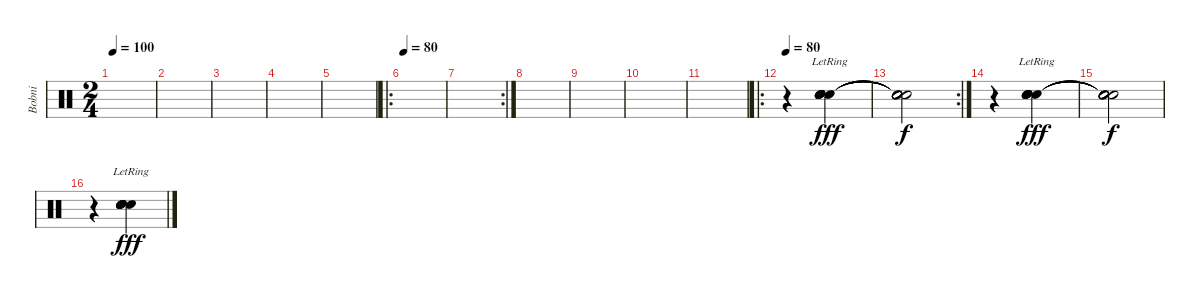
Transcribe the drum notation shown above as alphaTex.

\track ("Bobni" "Bobni") {instrument percussion}
\staff {score}
\articulation defaults
\ts (2 4)
\tempo 100
\clef neutral
\ks c
|
|
|
|
|
\ro
\tempo 80
|
\rc 2
|
|
|
|
|
\ro
\tempo 80
r.4 ("Snare (hit) 2"{lr} "Snare (hit) 2"{lr} "Snare (hit) 2"{lr} "Snare (hit) 2"{lr} "Snare (hit) 2"{lr} "Snare (hit) 2"{lr}).4{dy fff} |
\rc 2
("Snare (hit)"{t} "Snare (hit)"{t} "Snare (hit)"{t} "Snare (hit)"{t} "Snare (hit)"{t} "Snare (hit)"{t}).2{dy f} |
r.4 ("Snare (hit) 2"{lr} "Snare (hit) 2"{lr} "Snare (hit) 2"{lr} "Snare (hit) 2"{lr} "Snare (hit) 2"{lr} "Snare (hit) 2"{lr}).4{dy fff} |
("Snare (hit)"{t} "Snare (hit)"{t} "Snare (hit)"{t} "Snare (hit)"{t} "Snare (hit)"{t} "Snare (hit)"{t}).2{dy f} |
r.4 ("Snare (hit) 2"{lr} "Snare (hit) 2"{lr} "Snare (hit) 2"{lr} "Snare (hit) 2"{lr} "Snare (hit) 2"{lr} "Snare (hit) 2"{lr}).4{dy fff}
